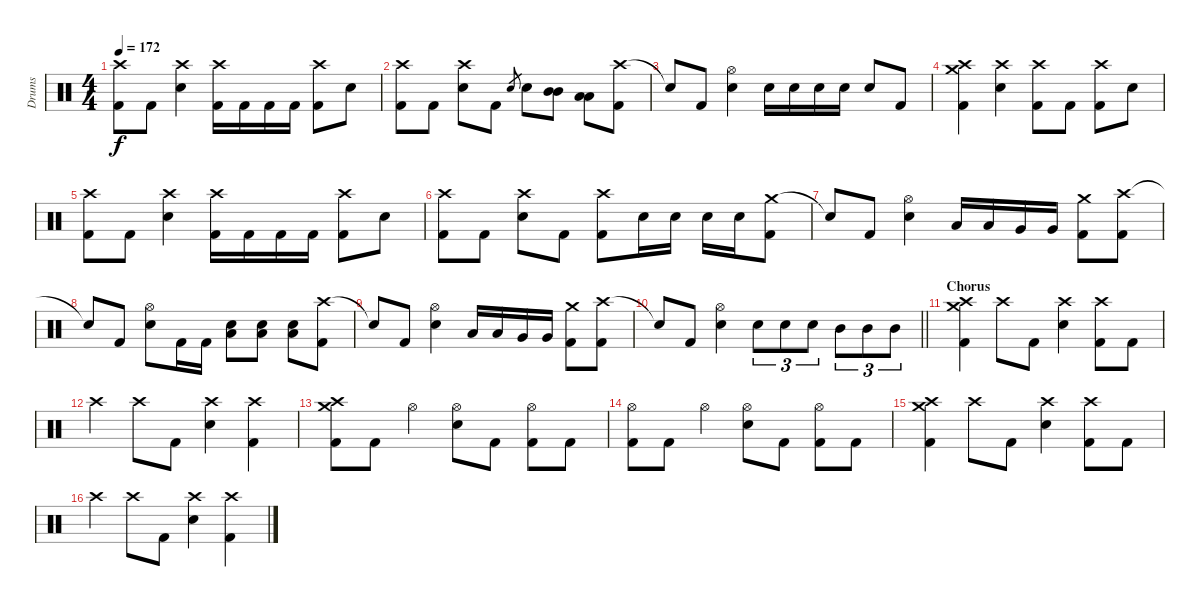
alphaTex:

\track ("Drums" "Drums") {instrument percussion}
\staff {score}
\articulation defaults
\ts (4 4)
\tempo 172
\clef neutral
\ks c
("Crash high (hit)" "Kick (hit) 2").8{dy f} "Kick (hit) 2".8 ("Crash high (hit)" "Electric Snare (hit)").4 ("Crash high (hit)" "Kick (hit) 2").16 "Kick (hit) 2".16 "Kick (hit) 2".16 "Kick (hit) 2".16 ("Crash high (hit)" "Kick (hit) 2").8 "Electric Snare (hit)".8 |
("Crash high (hit)" "Kick (hit) 2").8 "Kick (hit) 2".8 ("Crash high (hit)" "Electric Snare (hit)").8 "Kick (hit) 2".8 "Electric Snare (hit)".8{gr} "Electric Snare (hit)".8 ("Mid Tom (hit)" "Mid Tom (hit)").8{bu 120} ("Low Tom (hit)" "Low Tom (hit)").8{bu 120} ("Crash high (hit)" "Kick (hit) 2").8 |
"Snare (hit)"{t}.8 "Kick (hit) 2".8 ("Hi-Hat (open)" "Electric Snare (hit)").4 "Electric Snare (hit)".16 "Electric Snare (hit)".16 "Electric Snare (hit)".16 "Electric Snare (hit)".16 "Electric Snare (hit)".8 "Kick (hit) 2".8 |
("Crash medium (hit)" "Crash high (hit)" "Kick (hit) 2").4 ("Crash high (hit)" "Electric Snare (hit)").4 ("Crash high (hit)" "Kick (hit) 2").8 "Kick (hit) 2".8 ("Crash high (hit)" "Kick (hit) 2").8 "Electric Snare (hit)".8 |
("Crash high (hit)" "Kick (hit) 2").8 "Kick (hit) 2".8 ("Crash high (hit)" "Electric Snare (hit)").4 ("Crash high (hit)" "Kick (hit) 2").16 "Kick (hit) 2".16 "Kick (hit) 2".16 "Kick (hit) 2".16 ("Crash high (hit)" "Kick (hit) 2").8 "Electric Snare (hit)".8 |
("Crash high (hit)" "Kick (hit) 2").8 "Kick (hit) 2".8 ("Crash high (hit)" "Electric Snare (hit)").8 "Kick (hit) 2".8 ("Crash high (hit)" "Kick (hit) 2").8 "Electric Snare (hit)".16 "Electric Snare (hit)".16 "Electric Snare (hit)".16 "Electric Snare (hit)".16 ("Crash medium (hit)" "Kick (hit) 2").8 |
"Snare (hit)"{t}.8 "Kick (hit) 2".8 ("Hi-Hat (open)" "Electric Snare (hit)").4 "Low Tom (hit)".16 "Low Tom (hit)".16 "Very Low Tom (hit)".16 "Very Low Tom (hit)".16 ("Crash medium (hit)" "Kick (hit) 2").8 ("Crash high (hit)" "Kick (hit) 2").8 |
"Snare (hit)"{t}.8 "Kick (hit) 2".8 ("Hi-Hat (open)" "Electric Snare (hit)").8 "Kick (hit) 2".16 "Kick (hit) 2".16 ("Low Tom (hit)" "Electric Snare (hit)").8 ("Low Tom (hit)" "Electric Snare (hit)").8 ("Low Tom (hit)" "Electric Snare (hit)").8 ("Crash high (hit)" "Kick (hit) 2").8 |
"Snare (hit)"{t}.8 "Kick (hit) 2".8 ("Hi-Hat (open)" "Electric Snare (hit)").4 "Low Tom (hit)".16 "Low Tom (hit)".16 "Very Low Tom (hit)".16 "Very Low Tom (hit)".16 ("Crash medium (hit)" "Kick (hit) 2").8 ("Crash high (hit)" "Kick (hit) 2").8 |
\barLineRight lightlight "Snare (hit)"{t}.8 "Kick (hit) 2".8
("Hi-Hat (open)" "Electric Snare (hit)").4 "Electric Snare (hit)".8{tu (3 2)} "Electric Snare (hit)".8{tu (3 2)} "Electric Snare (hit)".8{tu (3 2)} "Mid Tom (hit)".8{tu (3 2)} "Mid Tom (hit)".8{tu (3 2)} "Mid Tom (hit)".8{tu (3 2)} |
\section ("" "Chorus")
("Crash medium (hit)" "Crash high (hit)" "Kick (hit) 2").4 "Crash high (hit)".8 "Kick (hit) 2".8 ("Crash high (hit)" "Electric Snare (hit)").4 ("Crash high (hit)" "Kick (hit) 2").8 "Kick (hit) 2".8 |
"Crash high (hit)".4 "Crash high (hit)".8 "Kick (hit) 2".8 ("Crash high (hit)" "Electric Snare (hit)").4 ("Crash high (hit)" "Kick (hit) 2").4 |
("Crash medium (hit)" "Crash high (hit)" "Kick (hit) 2").8 "Kick (hit) 2".8 "Hi-Hat (open)".4 ("Hi-Hat (open)" "Electric Snare (hit)").8 "Kick (hit) 2".8 ("Hi-Hat (open)" "Kick (hit) 2").8 "Kick (hit) 2".8 |
("Hi-Hat (open)" "Kick (hit) 2").8 "Kick (hit) 2".8 "Hi-Hat (open)".4 ("Hi-Hat (open)" "Electric Snare (hit)").8 "Kick (hit) 2".8 ("Hi-Hat (open)" "Kick (hit) 2").8 "Kick (hit) 2".8 |
("Crash medium (hit)" "Crash high (hit)" "Kick (hit) 2").4 "Crash high (hit)".8 "Kick (hit) 2".8 ("Crash high (hit)" "Electric Snare (hit)").4 ("Crash high (hit)" "Kick (hit) 2").8 "Kick (hit) 2".8 |
"Crash high (hit)".4 "Crash high (hit)".8 "Kick (hit) 2".8 ("Crash high (hit)" "Electric Snare (hit)").4 ("Crash high (hit)" "Kick (hit) 2").4
